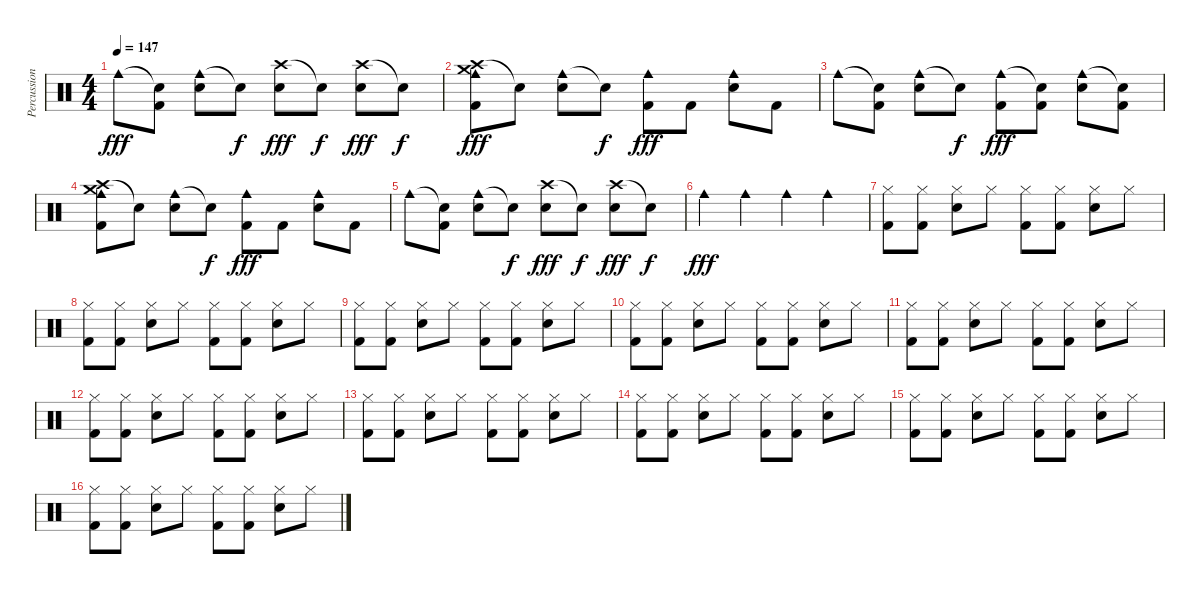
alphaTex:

\track ("Percussion" "Percussion") {instrument percussion}
\staff {score}
\articulation defaults
\ts (4 4)
\tempo 147
\clef neutral
\ks c "Cowbell medium (hit)".8{dy fff}
("Snare (hit)"{t} "Kick (hit) 2").8 ("Cowbell medium (hit)" "Electric Snare (hit)").8 "Snare (hit)"{t}.8{dy f} ("Crash high (hit)" "Electric Snare (hit)").8{dy fff} "Snare (hit)"{t}.8{dy f} ("Crash high (hit)" "Electric Snare (hit)").8{dy fff} "Snare (hit)"{t}.8{dy f} |
("Crash high (hit)" "Crash medium (hit)" "Cowbell medium (hit)" "Kick (hit) 2").8{dy fff} "Snare (hit)"{t}.8 ("Cowbell medium (hit)" "Electric Snare (hit)").8 "Snare (hit)"{t}.8{dy f} ("Cowbell medium (hit)" "Kick (hit) 2").8{dy fff} "Kick (hit) 2".8 ("Cowbell medium (hit)" "Electric Snare (hit)").8 "Kick (hit) 2".8 |
"Cowbell medium (hit)".8 ("Snare (hit)"{t} "Kick (hit) 2").8 ("Cowbell medium (hit)" "Electric Snare (hit)").8 "Snare (hit)"{t}.8{dy f} ("Cowbell medium (hit)" "Kick (hit) 2").8{dy fff} ("Snare (hit)"{t} "Kick (hit) 2").8 ("Cowbell medium (hit)" "Electric Snare (hit)").8 ("Snare (hit)"{t} "Kick (hit) 2").8 |
("Crash high (hit)" "Crash medium (hit)" "Cowbell medium (hit)" "Kick (hit) 2").8 "Snare (hit)"{t}.8 ("Cowbell medium (hit)" "Electric Snare (hit)").8 "Snare (hit)"{t}.8{dy f} ("Cowbell medium (hit)" "Kick (hit) 2").8{dy fff} "Kick (hit) 2".8 ("Cowbell medium (hit)" "Electric Snare (hit)").8 "Kick (hit) 2".8 |
"Cowbell medium (hit)".8 ("Snare (hit)"{t} "Kick (hit) 2").8 ("Cowbell medium (hit)" "Electric Snare (hit)").8 "Snare (hit)"{t}.8{dy f} ("Crash high (hit)" "Electric Snare (hit)").8{dy fff} "Snare (hit)"{t}.8{dy f} ("Crash high (hit)" "Electric Snare (hit)").8{dy fff} "Snare (hit)"{t}.8{dy f} |
"Cowbell medium (hit)".4{dy fff} "Cowbell medium (hit)".4 "Cowbell medium (hit)".4 "Cowbell medium (hit)".4 |
("Hi-Hat (closed)" "Kick (hit) 2").8 ("Hi-Hat (closed)" "Kick (hit) 2").8 ("Hi-Hat (closed)" "Electric Snare (hit)").8 "Hi-Hat (closed)".8 ("Hi-Hat (closed)" "Kick (hit) 2").8 ("Hi-Hat (closed)" "Kick (hit) 2").8 ("Hi-Hat (closed)" "Electric Snare (hit)").8 "Hi-Hat (closed)".8 |
("Hi-Hat (closed)" "Kick (hit) 2").8 ("Hi-Hat (closed)" "Kick (hit) 2").8 ("Hi-Hat (closed)" "Electric Snare (hit)").8 "Hi-Hat (closed)".8 ("Hi-Hat (closed)" "Kick (hit) 2").8 ("Hi-Hat (closed)" "Kick (hit) 2").8 ("Hi-Hat (closed)" "Electric Snare (hit)").8 "Hi-Hat (closed)".8 |
("Hi-Hat (closed)" "Kick (hit) 2").8 ("Hi-Hat (closed)" "Kick (hit) 2").8 ("Hi-Hat (closed)" "Electric Snare (hit)").8 "Hi-Hat (closed)".8 ("Hi-Hat (closed)" "Kick (hit) 2").8 ("Hi-Hat (closed)" "Kick (hit) 2").8 ("Hi-Hat (closed)" "Electric Snare (hit)").8 "Hi-Hat (closed)".8 |
("Hi-Hat (closed)" "Kick (hit) 2").8 ("Hi-Hat (closed)" "Kick (hit) 2").8 ("Hi-Hat (closed)" "Electric Snare (hit)").8 "Hi-Hat (closed)".8 ("Hi-Hat (closed)" "Kick (hit) 2").8 ("Hi-Hat (closed)" "Kick (hit) 2").8 ("Hi-Hat (closed)" "Electric Snare (hit)").8 "Hi-Hat (closed)".8 |
("Hi-Hat (closed)" "Kick (hit) 2").8 ("Hi-Hat (closed)" "Kick (hit) 2").8 ("Hi-Hat (closed)" "Electric Snare (hit)").8 "Hi-Hat (closed)".8 ("Hi-Hat (closed)" "Kick (hit) 2").8 ("Hi-Hat (closed)" "Kick (hit) 2").8 ("Hi-Hat (closed)" "Electric Snare (hit)").8 "Hi-Hat (closed)".8 |
("Hi-Hat (closed)" "Kick (hit) 2").8 ("Hi-Hat (closed)" "Kick (hit) 2").8 ("Hi-Hat (closed)" "Electric Snare (hit)").8 "Hi-Hat (closed)".8 ("Hi-Hat (closed)" "Kick (hit) 2").8 ("Hi-Hat (closed)" "Kick (hit) 2").8 ("Hi-Hat (closed)" "Electric Snare (hit)").8 "Hi-Hat (closed)".8 |
("Hi-Hat (closed)" "Kick (hit) 2").8 ("Hi-Hat (closed)" "Kick (hit) 2").8 ("Hi-Hat (closed)" "Electric Snare (hit)").8 "Hi-Hat (closed)".8 ("Hi-Hat (closed)" "Kick (hit) 2").8 ("Hi-Hat (closed)" "Kick (hit) 2").8 ("Hi-Hat (closed)" "Electric Snare (hit)").8 "Hi-Hat (closed)".8 |
("Hi-Hat (closed)" "Kick (hit) 2").8 ("Hi-Hat (closed)" "Kick (hit) 2").8 ("Hi-Hat (closed)" "Electric Snare (hit)").8 "Hi-Hat (closed)".8 ("Hi-Hat (closed)" "Kick (hit) 2").8 ("Hi-Hat (closed)" "Kick (hit) 2").8 ("Hi-Hat (closed)" "Electric Snare (hit)").8 "Hi-Hat (closed)".8 |
("Hi-Hat (closed)" "Kick (hit) 2").8 ("Hi-Hat (closed)" "Kick (hit) 2").8 ("Hi-Hat (closed)" "Electric Snare (hit)").8 "Hi-Hat (closed)".8 ("Hi-Hat (closed)" "Kick (hit) 2").8 ("Hi-Hat (closed)" "Kick (hit) 2").8 ("Hi-Hat (closed)" "Electric Snare (hit)").8 "Hi-Hat (closed)".8 |
("Hi-Hat (closed)" "Kick (hit) 2").8 ("Hi-Hat (closed)" "Kick (hit) 2").8 ("Hi-Hat (closed)" "Electric Snare (hit)").8 "Hi-Hat (closed)".8 ("Hi-Hat (closed)" "Kick (hit) 2").8 ("Hi-Hat (closed)" "Kick (hit) 2").8 ("Hi-Hat (closed)" "Electric Snare (hit)").8 "Hi-Hat (closed)".8
